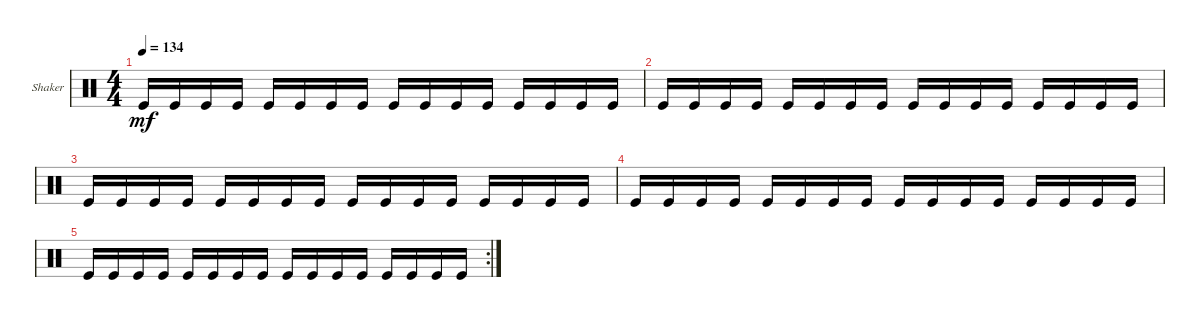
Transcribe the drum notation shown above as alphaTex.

\defaultSystemsLayout 4
\bracketExtendMode groupsimilarinstruments
\firstSystemTrackNameOrientation horizontal
\otherSystemsTrackNameOrientation horizontal
\track ("Shaker" "Shaker") {instrument percussion}
\staff {score}
\articulation defaults
\ts (4 4)
\tempo 134
\clef neutral
\ks c "Kick (hit)".16{dy mf} "Kick (hit)".16 "Kick (hit)".16 "Kick (hit)".16 "Kick (hit)".16 "Kick (hit)".16 "Kick (hit)".16 "Kick (hit)".16 "Kick (hit)".16 "Kick (hit)".16 "Kick (hit)".16 "Kick (hit)".16 "Kick (hit)".16 "Kick (hit)".16 "Kick (hit)".16 "Kick (hit)".16
|
"Kick (hit)".16 "Kick (hit)".16 "Kick (hit)".16 "Kick (hit)".16 "Kick (hit)".16 "Kick (hit)".16 "Kick (hit)".16 "Kick (hit)".16 "Kick (hit)".16 "Kick (hit)".16 "Kick (hit)".16 "Kick (hit)".16 "Kick (hit)".16 "Kick (hit)".16 "Kick (hit)".16 "Kick (hit)".16 |
"Kick (hit)".16 "Kick (hit)".16 "Kick (hit)".16 "Kick (hit)".16 "Kick (hit)".16 "Kick (hit)".16 "Kick (hit)".16 "Kick (hit)".16 "Kick (hit)".16 "Kick (hit)".16 "Kick (hit)".16 "Kick (hit)".16 "Kick (hit)".16 "Kick (hit)".16 "Kick (hit)".16 "Kick (hit)".16 |
"Kick (hit)".16 "Kick (hit)".16 "Kick (hit)".16 "Kick (hit)".16 "Kick (hit)".16 "Kick (hit)".16 "Kick (hit)".16 "Kick (hit)".16 "Kick (hit)".16 "Kick (hit)".16 "Kick (hit)".16 "Kick (hit)".16 "Kick (hit)".16 "Kick (hit)".16 "Kick (hit)".16 "Kick (hit)".16 |
\rc 2 "Kick (hit)".16 "Kick (hit)".16 "Kick (hit)".16 "Kick (hit)".16 "Kick (hit)".16 "Kick (hit)".16 "Kick (hit)".16 "Kick (hit)".16 "Kick (hit)".16 "Kick (hit)".16 "Kick (hit)".16 "Kick (hit)".16 "Kick (hit)".16 "Kick (hit)".16 "Kick (hit)".16 "Kick (hit)".16
